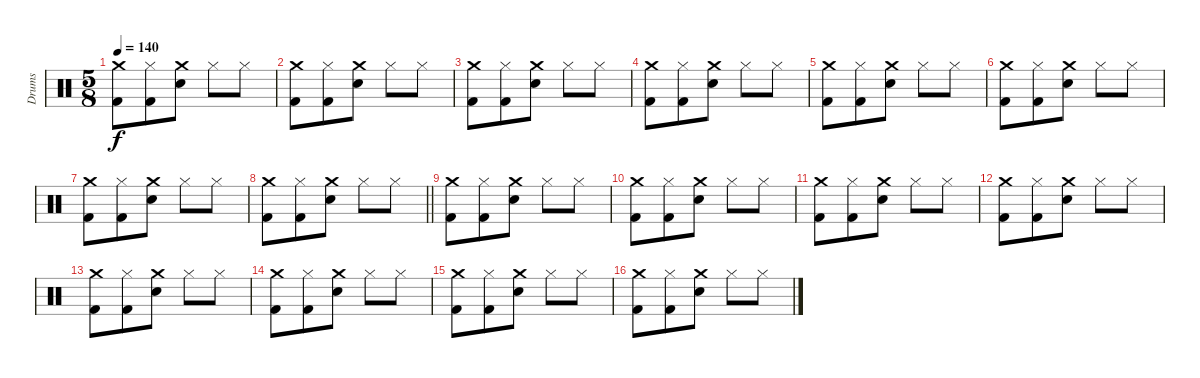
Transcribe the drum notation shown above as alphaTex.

\track ("Drums" "Drums") {instrument percussion}
\staff {score}
\articulation defaults
\ts (5 8)
\tempo 140
\clef neutral
\ks c
("Crash medium (hit)" "Kick (hit) 2").8{dy f} ("Hi-Hat (closed)" "Kick (hit) 2").8 ("Crash medium (hit)" "Electric Snare (hit)").8 "Hi-Hat (closed)".8 "Hi-Hat (closed)".8 |
("Crash medium (hit)" "Kick (hit) 2").8 ("Hi-Hat (closed)" "Kick (hit) 2").8 ("Crash medium (hit)" "Electric Snare (hit)").8 "Hi-Hat (closed)".8 "Hi-Hat (closed)".8 |
("Crash medium (hit)" "Kick (hit) 2").8 ("Hi-Hat (closed)" "Kick (hit) 2").8 ("Crash medium (hit)" "Electric Snare (hit)").8 "Hi-Hat (closed)".8 "Hi-Hat (closed)".8 |
("Crash medium (hit)" "Kick (hit) 2").8 ("Hi-Hat (closed)" "Kick (hit) 2").8 ("Crash medium (hit)" "Electric Snare (hit)").8 "Hi-Hat (closed)".8 "Hi-Hat (closed)".8 |
("Crash medium (hit)" "Kick (hit) 2").8 ("Hi-Hat (closed)" "Kick (hit) 2").8 ("Crash medium (hit)" "Electric Snare (hit)").8 "Hi-Hat (closed)".8 "Hi-Hat (closed)".8 |
("Crash medium (hit)" "Kick (hit) 2").8 ("Hi-Hat (closed)" "Kick (hit) 2").8 ("Crash medium (hit)" "Electric Snare (hit)").8 "Hi-Hat (closed)".8 "Hi-Hat (closed)".8 |
("Crash medium (hit)" "Kick (hit) 2").8 ("Hi-Hat (closed)" "Kick (hit) 2").8 ("Crash medium (hit)" "Electric Snare (hit)").8 "Hi-Hat (closed)".8 "Hi-Hat (closed)".8 |
\barLineRight lightlight
("Crash medium (hit)" "Kick (hit) 2").8 ("Hi-Hat (closed)" "Kick (hit) 2").8 ("Crash medium (hit)" "Electric Snare (hit)").8 "Hi-Hat (closed)".8 "Hi-Hat (closed)".8 |
("Crash medium (hit)" "Kick (hit) 2").8 ("Hi-Hat (closed)" "Kick (hit) 2").8 ("Crash medium (hit)" "Electric Snare (hit)").8 "Hi-Hat (closed)".8 "Hi-Hat (closed)".8 |
("Crash medium (hit)" "Kick (hit) 2").8 ("Hi-Hat (closed)" "Kick (hit) 2").8 ("Crash medium (hit)" "Electric Snare (hit)").8 "Hi-Hat (closed)".8 "Hi-Hat (closed)".8 |
("Crash medium (hit)" "Kick (hit) 2").8 ("Hi-Hat (closed)" "Kick (hit) 2").8 ("Crash medium (hit)" "Electric Snare (hit)").8 "Hi-Hat (closed)".8 "Hi-Hat (closed)".8 |
("Crash medium (hit)" "Kick (hit) 2").8 ("Hi-Hat (closed)" "Kick (hit) 2").8 ("Crash medium (hit)" "Electric Snare (hit)").8 "Hi-Hat (closed)".8 "Hi-Hat (closed)".8 |
("Crash medium (hit)" "Kick (hit) 2").8 ("Hi-Hat (closed)" "Kick (hit) 2").8 ("Crash medium (hit)" "Electric Snare (hit)").8 "Hi-Hat (closed)".8 "Hi-Hat (closed)".8 |
("Crash medium (hit)" "Kick (hit) 2").8 ("Hi-Hat (closed)" "Kick (hit) 2").8 ("Crash medium (hit)" "Electric Snare (hit)").8 "Hi-Hat (closed)".8 "Hi-Hat (closed)".8 |
("Crash medium (hit)" "Kick (hit) 2").8 ("Hi-Hat (closed)" "Kick (hit) 2").8 ("Crash medium (hit)" "Electric Snare (hit)").8 "Hi-Hat (closed)".8 "Hi-Hat (closed)".8 |
("Crash medium (hit)" "Kick (hit) 2").8 ("Hi-Hat (closed)" "Kick (hit) 2").8 ("Crash medium (hit)" "Electric Snare (hit)").8 "Hi-Hat (closed)".8 "Hi-Hat (closed)".8
